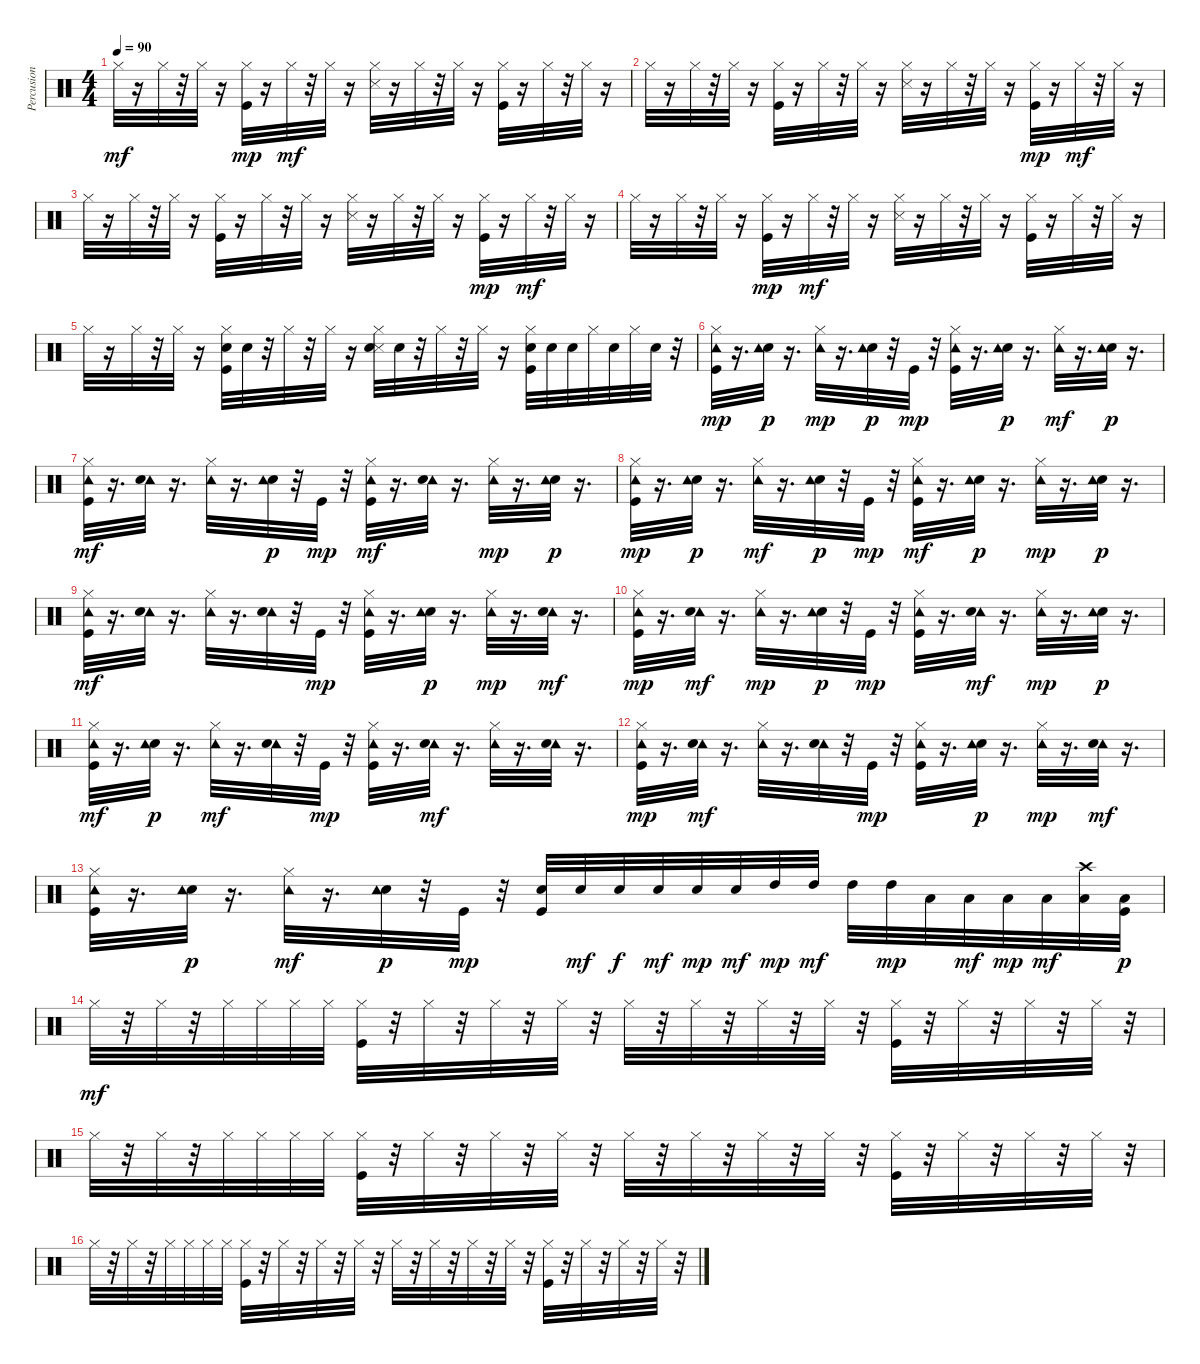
\track ("Percusion" "Percusion") {instrument percussion}
\staff {score}
\articulation defaults
\ts (4 4)
\tempo 90
\clef neutral
\ks c "Hi-Hat (closed)".32{dy mf}
r.16 "Hi-Hat (closed)".32 r.32 "Hi-Hat (closed)".32 r.16 ("Hi-Hat (closed)" "Kick (hit)").32{dy mp} r.16 "Hi-Hat (closed)".32{dy mf} r.32 "Hi-Hat (closed)".32 r.16 ("Snare (side stick) 3" "Hi-Hat (closed)").32 r.16 "Hi-Hat (closed)".32 r.32 "Hi-Hat (closed)".32 r.16 ("Kick (hit)" "Hi-Hat (closed)").32 r.16 "Hi-Hat (closed)".32 r.32 "Hi-Hat (closed)".32 r.16 |
"Hi-Hat (closed)".32 r.16 "Hi-Hat (closed)".32 r.32 "Hi-Hat (closed)".32 r.16 ("Kick (hit)" "Hi-Hat (closed)").32 r.16 "Hi-Hat (closed)".32 r.32 "Hi-Hat (closed)".32 r.16 ("Snare (side stick) 3" "Hi-Hat (closed)").32 r.16 "Hi-Hat (closed)".32 r.32 "Hi-Hat (closed)".32 r.16 ("Hi-Hat (closed)" "Kick (hit)").32{dy mp} r.16 "Hi-Hat (closed)".32{dy mf} r.32 "Hi-Hat (closed)".32 r.16 |
"Hi-Hat (closed)".32 r.16 "Hi-Hat (closed)".32 r.32 "Hi-Hat (closed)".32 r.16 ("Kick (hit)" "Hi-Hat (closed)").32 r.16 "Hi-Hat (closed)".32 r.32 "Hi-Hat (closed)".32 r.16 ("Snare (side stick) 3" "Hi-Hat (closed)").32 r.16 "Hi-Hat (closed)".32 r.32 "Hi-Hat (closed)".32 r.16 ("Hi-Hat (closed)" "Kick (hit)").32{dy mp} r.16 "Hi-Hat (closed)".32{dy mf} r.32 "Hi-Hat (closed)".32 r.16 |
"Hi-Hat (closed)".32 r.16 "Hi-Hat (closed)".32 r.32 "Hi-Hat (closed)".32 r.16 ("Hi-Hat (closed)" "Kick (hit)").32{dy mp} r.16 "Hi-Hat (closed)".32{dy mf} r.32 "Hi-Hat (closed)".32 r.16 ("Snare (side stick) 3" "Hi-Hat (closed)").32 r.16 "Hi-Hat (closed)".32 r.32 "Hi-Hat (closed)".32 r.16 ("Kick (hit)" "Hi-Hat (closed)").32 r.16 "Hi-Hat (closed)".32 r.32 "Hi-Hat (closed)".32 r.16 |
"Hi-Hat (closed)".32 r.16 "Hi-Hat (closed)".32 r.32 "Hi-Hat (closed)".32 r.16 ("Kick (hit)" "Snare (hit) 2" "Hi-Hat (closed)").32 "Snare (hit) 2".32 r.32 "Hi-Hat (closed)".32 r.32 "Hi-Hat (closed)".32 r.16 ("Hi-Hat (closed)" "Snare (side stick) 3" "Snare (hit) 2").32 "Snare (hit) 2".32 r.32 "Hi-Hat (closed)".32 r.32 "Hi-Hat (closed)".32 r.16 ("Kick (hit)" "Hi-Hat (closed)" "Snare (hit) 2").32 "Snare (hit) 2".32 "Snare (hit) 2".32 "Hi-Hat (closed)".32 "Snare (hit) 2".32 "Hi-Hat (closed)".32 "Snare (hit) 2".32 r.32 |
("Hi-Hat (closed)" "Kick (hit)" "Tambourine (hit)").32{dy mp} r.16{d} ("Snare (hit) 2" "Tambourine (hit)").32{dy p} r.16{d} ("Hi-Hat (closed)" "Tambourine (hit)").32{dy mp} r.16{d} ("Snare (hit) 2" "Tambourine (hit)").32{dy p} r.32 "Kick (hit)".32{dy mp} r.32 ("Hi-Hat (closed)" "Kick (hit)" "Tambourine (hit)").32 r.16{d} ("Snare (hit) 2" "Tambourine (hit)").32{dy p} r.16{d} ("Tambourine (hit)" "Hi-Hat (closed)").32{dy mf} r.16{d} ("Snare (hit) 2" "Tambourine (hit)").32{dy p} r.16{d} |
("Kick (hit)" "Tambourine (hit)" "Hi-Hat (closed)").32{dy mf} r.16{d} ("Tambourine (hit)" "Snare (hit) 2").32 r.16{d} ("Tambourine (hit)" "Hi-Hat (closed)").32 r.16{d} ("Snare (hit) 2" "Tambourine (hit)").32{dy p} r.32 "Kick (hit)".32{dy mp} r.32 ("Kick (hit)" "Tambourine (hit)" "Hi-Hat (closed)").32{dy mf} r.16{d} ("Tambourine (hit)" "Snare (hit) 2").32 r.16{d} ("Hi-Hat (closed)" "Tambourine (hit)").32{dy mp} r.16{d} ("Snare (hit) 2" "Tambourine (hit)").32{dy p} r.16{d} |
("Hi-Hat (closed)" "Kick (hit)" "Tambourine (hit)").32{dy mp} r.16{d} ("Snare (hit) 2" "Tambourine (hit)").32{dy p} r.16{d} ("Tambourine (hit)" "Hi-Hat (closed)").32{dy mf} r.16{d} ("Snare (hit) 2" "Tambourine (hit)").32{dy p} r.32 "Kick (hit)".32{dy mp} r.32 ("Tambourine (hit)" "Kick (hit)" "Hi-Hat (closed)").32{dy mf} r.16{d} ("Snare (hit) 2" "Tambourine (hit)").32{dy p} r.16{d} ("Hi-Hat (closed)" "Tambourine (hit)").32{dy mp} r.16{d} ("Snare (hit) 2" "Tambourine (hit)").32{dy p} r.16{d} |
("Kick (hit)" "Tambourine (hit)" "Hi-Hat (closed)").32{dy mf} r.16{d} ("Tambourine (hit)" "Snare (hit) 2").32 r.16{d} ("Tambourine (hit)" "Hi-Hat (closed)").32 r.16{d} ("Tambourine (hit)" "Snare (hit) 2").32 r.32 "Kick (hit)".32{dy mp} r.32 ("Hi-Hat (closed)" "Kick (hit)" "Tambourine (hit)").32 r.16{d} ("Snare (hit) 2" "Tambourine (hit)").32{dy p} r.16{d} ("Hi-Hat (closed)" "Tambourine (hit)").32{dy mp} r.16{d} ("Tambourine (hit)" "Snare (hit) 2").32{dy mf} r.16{d} |
("Hi-Hat (closed)" "Tambourine (hit)" "Kick (hit)").32{dy mp} r.16{d} ("Tambourine (hit)" "Snare (hit) 2").32{dy mf} r.16{d} ("Hi-Hat (closed)" "Tambourine (hit)").32{dy mp} r.16{d} ("Snare (hit) 2" "Tambourine (hit)").32{dy p} r.32 "Kick (hit)".32{dy mp} r.32 ("Tambourine (hit)" "Hi-Hat (closed)" "Kick (hit)").32 r.16{d} ("Tambourine (hit)" "Snare (hit) 2").32{dy mf} r.16{d} ("Hi-Hat (closed)" "Tambourine (hit)").32{dy mp} r.16{d} ("Snare (hit) 2" "Tambourine (hit)").32{dy p} r.16{d} |
("Kick (hit)" "Tambourine (hit)" "Hi-Hat (closed)").32{dy mf} r.16{d} ("Snare (hit) 2" "Tambourine (hit)").32{dy p} r.16{d} ("Tambourine (hit)" "Hi-Hat (closed)").32{dy mf} r.16{d} ("Tambourine (hit)" "Snare (hit) 2").32 r.32 "Kick (hit)".32{dy mp} r.32 ("Hi-Hat (closed)" "Tambourine (hit)" "Kick (hit)").32 r.16{d} ("Tambourine (hit)" "Snare (hit) 2").32{dy mf} r.16{d} ("Tambourine (hit)" "Hi-Hat (closed)").32 r.16{d} ("Tambourine (hit)" "Snare (hit) 2").32 r.16{d} |
("Kick (hit)" "Hi-Hat (closed)" "Tambourine (hit)").32{dy mp} r.16{d} ("Tambourine (hit)" "Snare (hit) 2").32{dy mf} r.16{d} ("Tambourine (hit)" "Hi-Hat (closed)").32 r.16{d} ("Tambourine (hit)" "Snare (hit) 2").32 r.32 "Kick (hit)".32{dy mp} r.32 ("Kick (hit)" "Hi-Hat (closed)" "Tambourine (hit)").32 r.16{d} ("Snare (hit) 2" "Tambourine (hit)").32{dy p} r.16{d} ("Hi-Hat (closed)" "Tambourine (hit)").32{dy mp} r.16{d} ("Tambourine (hit)" "Snare (hit) 2").32{dy mf} r.16{d} |
("Kick (hit)" "Tambourine (hit)" "Hi-Hat (closed)").32 r.16{d} ("Snare (hit) 2" "Tambourine (hit)").32{dy p} r.16{d} ("Tambourine (hit)" "Hi-Hat (closed)").32{dy mf} r.16{d} ("Snare (hit) 2" "Tambourine (hit)").32{dy p} r.32 "Kick (hit)".32{dy mp} r.32 ("Snare (hit) 2" "Kick (hit)").32 "Snare (hit) 2".32{dy mf} "Snare (hit) 2".32{dy f} "Snare (hit) 2".32{dy mf} "Snare (hit) 2".32{dy mp} "Snare (hit) 2".32{dy mf} "High Tom (hit)".32{dy mp} "High Tom (hit)".32{dy mf} "High Tom (hit)".32 "High Tom (hit)".32{dy mp} "Low Tom (hit)".32 "Low Tom (hit)".32{dy mf} "Low Tom (hit)".32{dy mp} "Low Tom (hit)".32{dy mf} ("Low Tom (hit)" "Crash high (hit)").32 ("Kick (hit)" "Low Tom (hit)").32{dy p} |
"Hi-Hat (closed)".32{dy mf} r.32 "Hi-Hat (closed)".32 r.32 "Hi-Hat (closed)".32 "Hi-Hat (closed)".32 "Hi-Hat (closed)".32 "Hi-Hat (closed)".32 ("Kick (hit)" "Hi-Hat (closed)").32 r.32 "Hi-Hat (closed)".32 r.32 "Hi-Hat (closed)".32 r.32 "Hi-Hat (closed)".32 r.32 "Hi-Hat (closed)".32 r.32 "Hi-Hat (closed)".32 r.32 "Hi-Hat (closed)".32 r.32 "Hi-Hat (closed)".32 r.32 ("Kick (hit)" "Hi-Hat (closed)").32 r.32 "Hi-Hat (closed)".32 r.32 "Hi-Hat (closed)".32 r.32 "Hi-Hat (closed)".32 r.32 |
"Hi-Hat (closed)".32 r.32 "Hi-Hat (closed)".32 r.32 "Hi-Hat (closed)".32 "Hi-Hat (closed)".32 "Hi-Hat (closed)".32 "Hi-Hat (closed)".32 ("Hi-Hat (closed)" "Kick (hit)").32 r.32 "Hi-Hat (closed)".32 r.32 "Hi-Hat (closed)".32 r.32 "Hi-Hat (closed)".32 r.32 "Hi-Hat (closed)".32 r.32 "Hi-Hat (closed)".32 r.32 "Hi-Hat (closed)".32 r.32 "Hi-Hat (closed)".32 r.32 ("Hi-Hat (closed)" "Kick (hit)").32 r.32 "Hi-Hat (closed)".32 r.32 "Hi-Hat (closed)".32 r.32 "Hi-Hat (closed)".32 r.32 |
"Hi-Hat (closed)".32 r.32 "Hi-Hat (closed)".32 r.32 "Hi-Hat (closed)".32 "Hi-Hat (closed)".32 "Hi-Hat (closed)".32 "Hi-Hat (closed)".32 ("Hi-Hat (closed)" "Kick (hit)").32 r.32 "Hi-Hat (closed)".32 r.32 "Hi-Hat (closed)".32 r.32 "Hi-Hat (closed)".32 r.32 "Hi-Hat (closed)".32 r.32 "Hi-Hat (closed)".32 r.32 "Hi-Hat (closed)".32 r.32 "Hi-Hat (closed)".32 r.32 ("Kick (hit)" "Hi-Hat (closed)").32 r.32 "Hi-Hat (closed)".32 r.32 "Hi-Hat (closed)".32 r.32 "Hi-Hat (closed)".32 r.32
